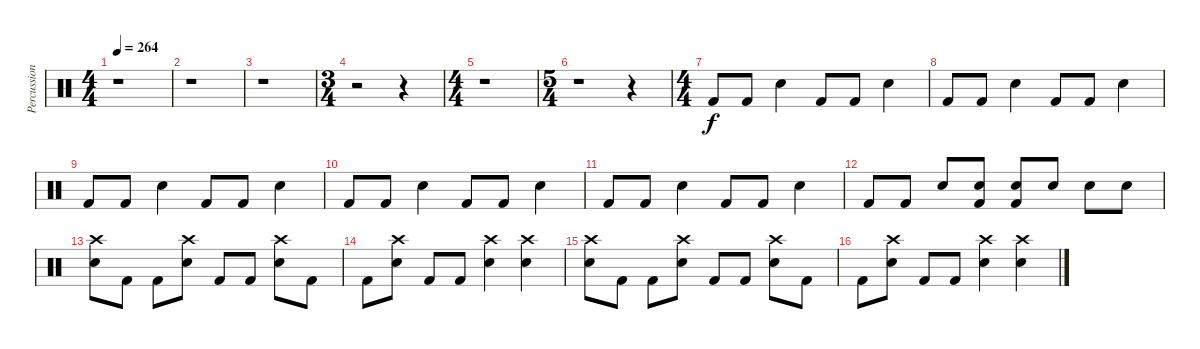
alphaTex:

\track ("Percussion" "Percussion") {instrument percussion}
\staff {score}
\articulation defaults
\ts (4 4)
\tempo 264
\clef neutral
\ks c
r.1{dy f} |
r.1 |
r.1 |
\ts (3 4)
r.2 r.4 |
\ts (4 4)
r.1 |
\ts (5 4)
r.1 r.4 |
\ts (4 4)
"Kick (hit) 2".8 "Kick (hit) 2".8 "Snare (hit) 2".4 "Kick (hit) 2".8 "Kick (hit) 2".8 "Snare (hit) 2".4 |
"Kick (hit) 2".8 "Kick (hit) 2".8 "Snare (hit) 2".4 "Kick (hit) 2".8 "Kick (hit) 2".8 "Snare (hit) 2".4 |
"Kick (hit) 2".8 "Kick (hit) 2".8 "Snare (hit) 2".4 "Kick (hit) 2".8 "Kick (hit) 2".8 "Snare (hit) 2".4 |
"Kick (hit) 2".8 "Kick (hit) 2".8 "Snare (hit) 2".4 "Kick (hit) 2".8 "Kick (hit) 2".8 "Snare (hit) 2".4 |
"Kick (hit) 2".8 "Kick (hit) 2".8 "Snare (hit) 2".4 "Kick (hit) 2".8 "Kick (hit) 2".8 "Snare (hit) 2".4 |
"Kick (hit) 2".8 "Kick (hit) 2".8 "Snare (hit) 2".8 ("Kick (hit) 2" "Snare (hit) 2").8 ("Kick (hit) 2" "Snare (hit) 2").8 "Snare (hit) 2".8 "Snare (hit) 2".8 "Snare (hit) 2".8 |
("Crash high (hit)" "Snare (hit) 2").8 "Kick (hit) 2".8 "Kick (hit) 2".8 ("Crash high (hit)" "Snare (hit) 2").8 "Kick (hit) 2".8 "Kick (hit) 2".8 ("Crash high (hit)" "Snare (hit) 2").8 "Kick (hit) 2".8 |
"Kick (hit) 2".8 ("Crash high (hit)" "Snare (hit) 2").8 "Kick (hit) 2".8 "Kick (hit) 2".8 ("Crash high (hit)" "Snare (hit) 2").4 ("Crash high (hit)" "Snare (hit) 2").4 |
("Crash high (hit)" "Snare (hit) 2").8 "Kick (hit) 2".8 "Kick (hit) 2".8 ("Crash high (hit)" "Snare (hit) 2").8 "Kick (hit) 2".8 "Kick (hit) 2".8 ("Crash high (hit)" "Snare (hit) 2").8 "Kick (hit) 2".8 |
"Kick (hit) 2".8 ("Crash high (hit)" "Snare (hit) 2").8 "Kick (hit) 2".8 "Kick (hit) 2".8 ("Crash high (hit)" "Snare (hit) 2").4 ("Crash high (hit)" "Snare (hit) 2").4
